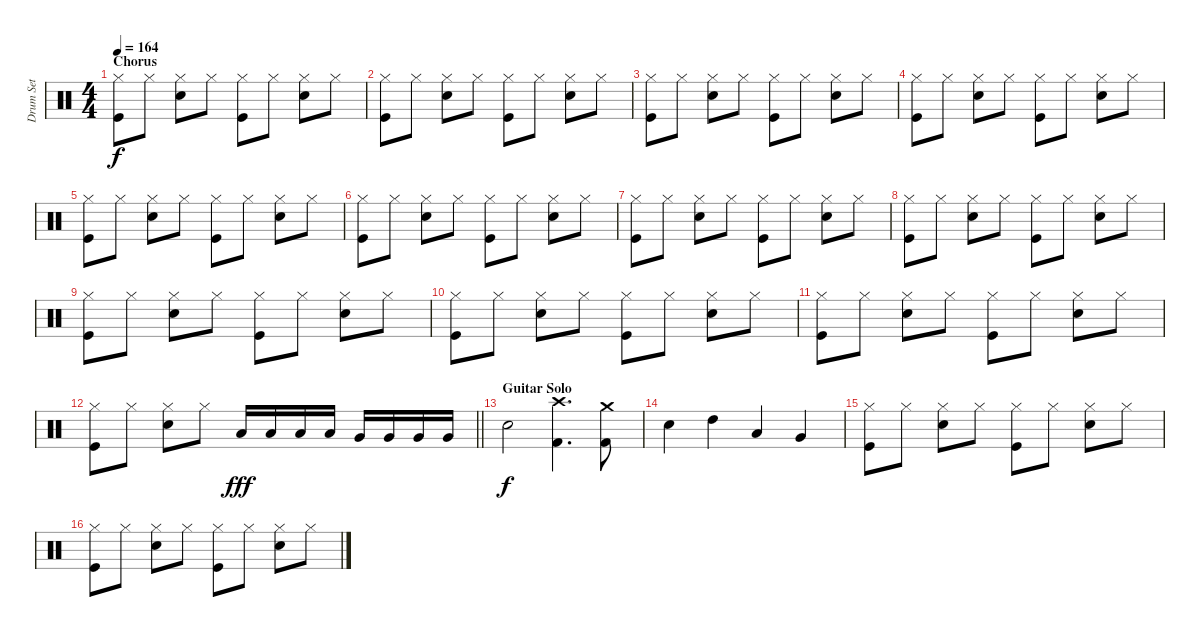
\track ("Drum Set" "Drum Set") {instrument percussion}
\staff {score}
\articulation defaults
\ts (4 4)
\section ("" "Chorus")
\tempo 164
\clef neutral
\ks c
("Kick (hit)" "Hi-Hat (closed)").8{dy f} "Hi-Hat (closed)".8 ("Electric Snare (hit)" "Hi-Hat (closed)").8 "Hi-Hat (closed)".8 ("Kick (hit)" "Hi-Hat (closed)").8 "Hi-Hat (closed)".8 ("Electric Snare (hit)" "Hi-Hat (closed)").8 "Hi-Hat (closed)".8 |
("Kick (hit)" "Hi-Hat (closed)").8 "Hi-Hat (closed)".8 ("Electric Snare (hit)" "Hi-Hat (closed)").8 "Hi-Hat (closed)".8 ("Kick (hit)" "Hi-Hat (closed)").8 "Hi-Hat (closed)".8 ("Electric Snare (hit)" "Hi-Hat (closed)").8 "Hi-Hat (closed)".8 |
("Kick (hit)" "Hi-Hat (closed)").8 "Hi-Hat (closed)".8 ("Electric Snare (hit)" "Hi-Hat (closed)").8 "Hi-Hat (closed)".8 ("Kick (hit)" "Hi-Hat (closed)").8 "Hi-Hat (closed)".8 ("Electric Snare (hit)" "Hi-Hat (closed)").8 "Hi-Hat (closed)".8 |
("Kick (hit)" "Hi-Hat (closed)").8 "Hi-Hat (closed)".8 ("Electric Snare (hit)" "Hi-Hat (closed)").8 "Hi-Hat (closed)".8 ("Kick (hit)" "Hi-Hat (closed)").8 "Hi-Hat (closed)".8 ("Electric Snare (hit)" "Hi-Hat (closed)").8 "Hi-Hat (closed)".8 |
("Kick (hit)" "Hi-Hat (closed)").8 "Hi-Hat (closed)".8 ("Electric Snare (hit)" "Hi-Hat (closed)").8 "Hi-Hat (closed)".8 ("Kick (hit)" "Hi-Hat (closed)").8 "Hi-Hat (closed)".8 ("Electric Snare (hit)" "Hi-Hat (closed)").8 "Hi-Hat (closed)".8 |
("Kick (hit)" "Hi-Hat (closed)").8 "Hi-Hat (closed)".8 ("Electric Snare (hit)" "Hi-Hat (closed)").8 "Hi-Hat (closed)".8 ("Kick (hit)" "Hi-Hat (closed)").8 "Hi-Hat (closed)".8 ("Electric Snare (hit)" "Hi-Hat (closed)").8 "Hi-Hat (closed)".8 |
("Kick (hit)" "Hi-Hat (closed)").8 "Hi-Hat (closed)".8 ("Electric Snare (hit)" "Hi-Hat (closed)").8 "Hi-Hat (closed)".8 ("Kick (hit)" "Hi-Hat (closed)").8 "Hi-Hat (closed)".8 ("Electric Snare (hit)" "Hi-Hat (closed)").8 "Hi-Hat (closed)".8 |
("Kick (hit)" "Hi-Hat (closed)").8 "Hi-Hat (closed)".8 ("Electric Snare (hit)" "Hi-Hat (closed)").8 "Hi-Hat (closed)".8 ("Kick (hit)" "Hi-Hat (closed)").8 "Hi-Hat (closed)".8 ("Electric Snare (hit)" "Hi-Hat (closed)").8 "Hi-Hat (closed)".8 |
("Kick (hit)" "Hi-Hat (closed)").8 "Hi-Hat (closed)".8 ("Electric Snare (hit)" "Hi-Hat (closed)").8 "Hi-Hat (closed)".8 ("Kick (hit)" "Hi-Hat (closed)").8 "Hi-Hat (closed)".8 ("Electric Snare (hit)" "Hi-Hat (closed)").8 "Hi-Hat (closed)".8 |
("Kick (hit)" "Hi-Hat (closed)").8 "Hi-Hat (closed)".8 ("Electric Snare (hit)" "Hi-Hat (closed)").8 "Hi-Hat (closed)".8 ("Kick (hit)" "Hi-Hat (closed)").8 "Hi-Hat (closed)".8 ("Electric Snare (hit)" "Hi-Hat (closed)").8 "Hi-Hat (closed)".8 |
("Kick (hit)" "Hi-Hat (closed)").8 "Hi-Hat (closed)".8 ("Electric Snare (hit)" "Hi-Hat (closed)").8 "Hi-Hat (closed)".8 ("Kick (hit)" "Hi-Hat (closed)").8 "Hi-Hat (closed)".8 ("Electric Snare (hit)" "Hi-Hat (closed)").8 "Hi-Hat (closed)".8 |
\barLineRight lightlight
("Kick (hit)" "Hi-Hat (closed)").8 "Hi-Hat (closed)".8 ("Electric Snare (hit)" "Hi-Hat (closed)").8 "Hi-Hat (closed)".8 "Low Tom (hit)".16{dy fff} "Low Tom (hit)".16 "Low Tom (hit)".16 "Low Tom (hit)".16 "Very Low Tom (hit)".16 "Very Low Tom (hit)".16 "Very Low Tom (hit)".16 "Very Low Tom (hit)".16 |
\section ("" "Guitar Solo")
"Electric Snare (hit)".2{dy f} ("Crash high (hit)" "Kick (hit) 2").4{d} ("Crash medium (hit)" "Kick (hit) 2").8 |
"Electric Snare (hit)".4 "High Tom (hit)".4 "Low Tom (hit)".4 "Very Low Tom (hit)".4 |
("Kick (hit)" "Hi-Hat (closed)").8 "Hi-Hat (closed)".8 ("Electric Snare (hit)" "Hi-Hat (closed)").8 "Hi-Hat (closed)".8 ("Kick (hit)" "Hi-Hat (closed)").8 "Hi-Hat (closed)".8 ("Electric Snare (hit)" "Hi-Hat (closed)").8 "Hi-Hat (closed)".8 |
("Kick (hit)" "Hi-Hat (closed)").8 "Hi-Hat (closed)".8 ("Electric Snare (hit)" "Hi-Hat (closed)").8 "Hi-Hat (closed)".8 ("Kick (hit)" "Hi-Hat (closed)").8 "Hi-Hat (closed)".8 ("Electric Snare (hit)" "Hi-Hat (closed)").8 "Hi-Hat (closed)".8
